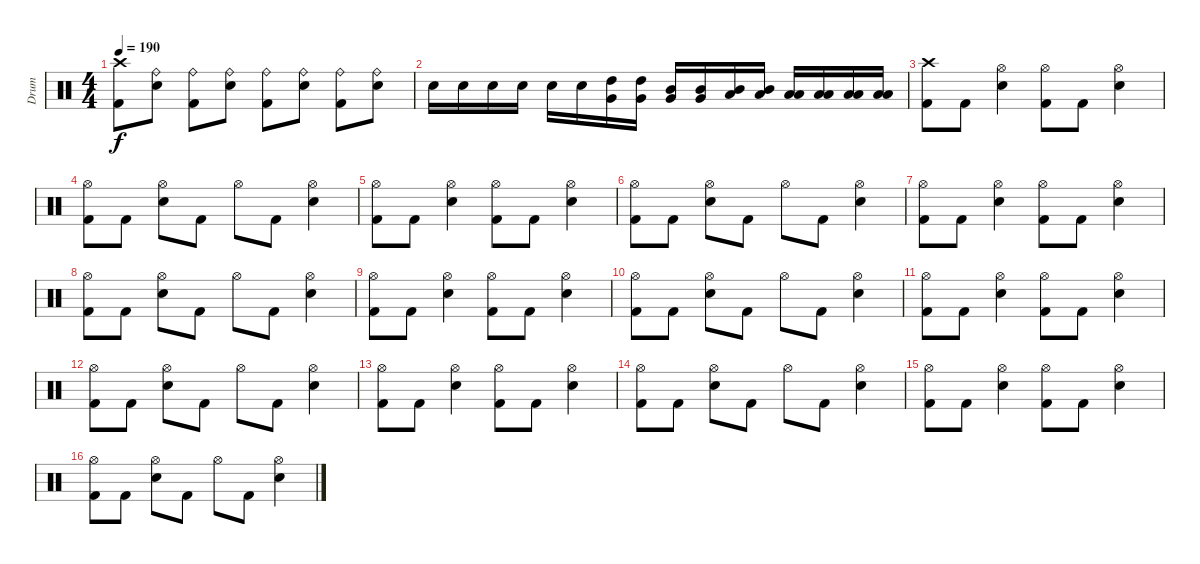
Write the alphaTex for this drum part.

\track ("Drum" "Drum") {instrument percussion}
\staff {score}
\articulation defaults
\ts (4 4)
\tempo 190
\clef neutral
\ks c
("Crash high (hit)" "Kick (hit) 2").8{dy f} ("Ride (bell)" "Snare (hit) 2").8 ("Ride (bell)" "Kick (hit) 2").8 ("Ride (bell)" "Snare (hit) 2").8 ("Ride (bell)" "Kick (hit) 2").8 ("Ride (bell)" "Snare (hit) 2").8 ("Ride (bell)" "Kick (hit) 2").8 ("Ride (bell)" "Snare (hit) 2").8 |
"Snare (hit) 2".16 "Snare (hit) 2".16 "Snare (hit) 2".16 "Snare (hit) 2".16 "Snare (hit) 2".16 "Snare (hit) 2".16 ("High Tom (hit)" "Very Low Tom (hit)").16 ("High Tom (hit)" "Very Low Tom (hit)").16 ("Mid Tom (hit)" "Very Low Tom (hit)").16 ("Mid Tom (hit)" "Very Low Tom (hit)").16 ("Mid Tom (hit)" "Low Floor Tom (hit)").16 ("Mid Tom (hit)" "Low Floor Tom (hit)").16 ("Low Tom (hit)" "Low Floor Tom (hit)").16 ("Low Tom (hit)" "Low Floor Tom (hit)").16 ("Low Tom (hit)" "Low Floor Tom (hit)").16 ("Low Tom (hit)" "Low Floor Tom (hit)").16 |
("Crash high (hit)" "Kick (hit) 2").8 "Kick (hit) 2".8 ("Hi-Hat (open)" "Snare (hit) 2").4 ("Hi-Hat (open)" "Kick (hit) 2").8 "Kick (hit) 2".8 ("Hi-Hat (open)" "Snare (hit) 2").4 |
("Hi-Hat (open)" "Kick (hit) 2").8 "Kick (hit) 2".8 ("Hi-Hat (open)" "Snare (hit) 2").8 "Kick (hit) 2".8 "Hi-Hat (open)".8 "Kick (hit) 2".8 ("Hi-Hat (open)" "Snare (hit) 2").4 |
("Hi-Hat (open)" "Kick (hit) 2").8 "Kick (hit) 2".8 ("Hi-Hat (open)" "Snare (hit) 2").4 ("Hi-Hat (open)" "Kick (hit) 2").8 "Kick (hit) 2".8 ("Hi-Hat (open)" "Snare (hit) 2").4 |
("Hi-Hat (open)" "Kick (hit) 2").8 "Kick (hit) 2".8 ("Hi-Hat (open)" "Snare (hit) 2").8 "Kick (hit) 2".8 "Hi-Hat (open)".8 "Kick (hit) 2".8 ("Hi-Hat (open)" "Snare (hit) 2").4 |
("Hi-Hat (open)" "Kick (hit) 2").8 "Kick (hit) 2".8 ("Hi-Hat (open)" "Snare (hit) 2").4 ("Hi-Hat (open)" "Kick (hit) 2").8 "Kick (hit) 2".8 ("Hi-Hat (open)" "Snare (hit) 2").4 |
("Hi-Hat (open)" "Kick (hit) 2").8 "Kick (hit) 2".8 ("Hi-Hat (open)" "Snare (hit) 2").8 "Kick (hit) 2".8 "Hi-Hat (open)".8 "Kick (hit) 2".8 ("Hi-Hat (open)" "Snare (hit) 2").4 |
("Hi-Hat (open)" "Kick (hit) 2").8 "Kick (hit) 2".8 ("Hi-Hat (open)" "Snare (hit) 2").4 ("Hi-Hat (open)" "Kick (hit) 2").8 "Kick (hit) 2".8 ("Hi-Hat (open)" "Snare (hit) 2").4 |
("Hi-Hat (open)" "Kick (hit) 2").8 "Kick (hit) 2".8 ("Hi-Hat (open)" "Snare (hit) 2").8 "Kick (hit) 2".8 "Hi-Hat (open)".8 "Kick (hit) 2".8 ("Hi-Hat (open)" "Snare (hit) 2").4 |
("Hi-Hat (open)" "Kick (hit) 2").8 "Kick (hit) 2".8 ("Hi-Hat (open)" "Snare (hit) 2").4 ("Hi-Hat (open)" "Kick (hit) 2").8 "Kick (hit) 2".8 ("Hi-Hat (open)" "Snare (hit) 2").4 |
("Hi-Hat (open)" "Kick (hit) 2").8 "Kick (hit) 2".8 ("Hi-Hat (open)" "Snare (hit) 2").8 "Kick (hit) 2".8 "Hi-Hat (open)".8 "Kick (hit) 2".8 ("Hi-Hat (open)" "Snare (hit) 2").4 |
("Hi-Hat (open)" "Kick (hit) 2").8 "Kick (hit) 2".8 ("Hi-Hat (open)" "Snare (hit) 2").4 ("Hi-Hat (open)" "Kick (hit) 2").8 "Kick (hit) 2".8 ("Hi-Hat (open)" "Snare (hit) 2").4 |
("Hi-Hat (open)" "Kick (hit) 2").8 "Kick (hit) 2".8 ("Hi-Hat (open)" "Snare (hit) 2").8 "Kick (hit) 2".8 "Hi-Hat (open)".8 "Kick (hit) 2".8 ("Hi-Hat (open)" "Snare (hit) 2").4 |
("Hi-Hat (open)" "Kick (hit) 2").8 "Kick (hit) 2".8 ("Hi-Hat (open)" "Snare (hit) 2").4 ("Hi-Hat (open)" "Kick (hit) 2").8 "Kick (hit) 2".8 ("Hi-Hat (open)" "Snare (hit) 2").4 |
("Hi-Hat (open)" "Kick (hit) 2").8 "Kick (hit) 2".8 ("Hi-Hat (open)" "Snare (hit) 2").8 "Kick (hit) 2".8 "Hi-Hat (open)".8 "Kick (hit) 2".8 ("Hi-Hat (open)" "Snare (hit) 2").4
